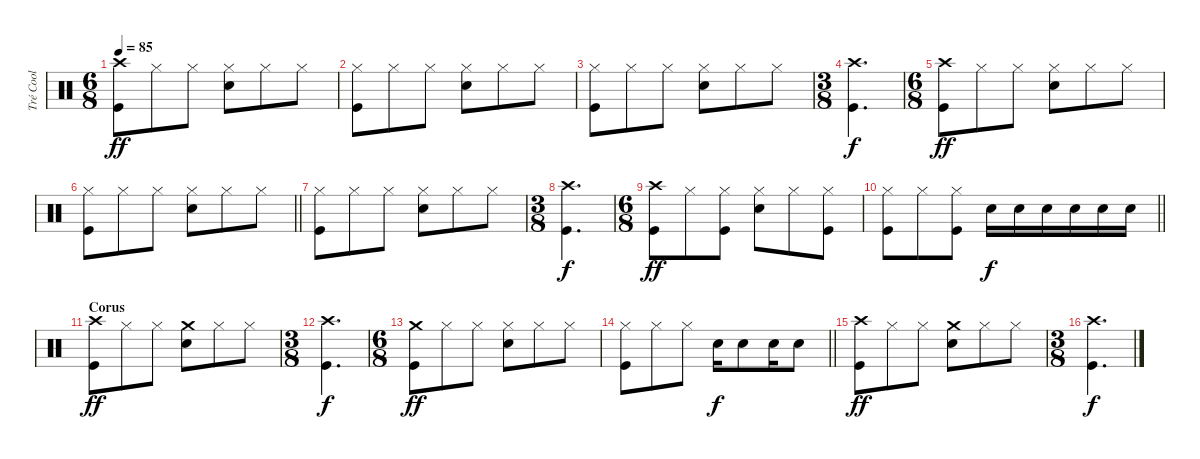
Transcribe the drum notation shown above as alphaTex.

\track ("Tré Cool" "Tré Cool") {instrument percussion}
\staff {score}
\articulation defaults
\ts (6 8)
\tempo 85
\clef neutral
\ks c
("Crash high (hit)" "Kick (hit)").8{dy ff} "Hi-Hat (closed)".8 "Hi-Hat (closed)".8 ("Hi-Hat (closed)" "Snare (hit) 2").8 "Hi-Hat (closed)".8 "Hi-Hat (closed)".8 |
("Hi-Hat (closed)" "Kick (hit)").8 "Hi-Hat (closed)".8 "Hi-Hat (closed)".8 ("Hi-Hat (closed)" "Snare (hit) 2").8 "Hi-Hat (closed)".8 "Hi-Hat (closed)".8 |
("Hi-Hat (closed)" "Kick (hit)").8 "Hi-Hat (closed)".8 "Hi-Hat (closed)".8 ("Hi-Hat (closed)" "Snare (hit) 2").8 "Hi-Hat (closed)".8 "Hi-Hat (closed)".8 |
\ts (3 8)
("Crash high (hit)" "Kick (hit)").4{d dy f} |
\ts (6 8)
("Crash high (hit)" "Kick (hit)").8{dy ff} "Hi-Hat (closed)".8 "Hi-Hat (closed)".8 ("Hi-Hat (closed)" "Snare (hit) 2").8 "Hi-Hat (closed)".8 "Hi-Hat (closed)".8 |
\barLineRight lightlight
("Hi-Hat (closed)" "Kick (hit)").8 "Hi-Hat (closed)".8 "Hi-Hat (closed)".8 ("Hi-Hat (closed)" "Snare (hit) 2").8 "Hi-Hat (closed)".8 "Hi-Hat (closed)".8 |
("Hi-Hat (closed)" "Kick (hit)").8 "Hi-Hat (closed)".8 "Hi-Hat (closed)".8 ("Hi-Hat (closed)" "Snare (hit) 2").8 "Hi-Hat (closed)".8 "Hi-Hat (closed)".8 |
\ts (3 8)
("Crash high (hit)" "Kick (hit)").4{d dy f} |
\ts (6 8)
("Crash high (hit)" "Kick (hit)").8{dy ff} "Hi-Hat (closed)".8 ("Hi-Hat (closed)" "Kick (hit)").8 ("Hi-Hat (closed)" "Snare (hit) 2").8 "Hi-Hat (closed)".8 ("Hi-Hat (closed)" "Kick (hit)").8 |
\barLineRight lightlight
("Hi-Hat (closed)" "Kick (hit)").8 "Hi-Hat (closed)".8 ("Hi-Hat (closed)" "Kick (hit)").8 "Snare (hit) 2".16{dy f} "Snare (hit) 2".16 "Snare (hit) 2".16 "Snare (hit) 2".16 "Snare (hit) 2".16 "Snare (hit) 2".16 |
\section ("" "Corus")
("Crash high (hit)" "Kick (hit)").8{dy ff} "Hi-Hat (closed)".8 "Hi-Hat (closed)".8 ("Crash medium (hit)" "Snare (hit) 2").8 "Hi-Hat (closed)".8 "Hi-Hat (closed)".8 |
\ts (3 8)
("Crash high (hit)" "Kick (hit)").4{d dy f} |
\ts (6 8)
("Crash medium (hit)" "Kick (hit)").8{dy ff} "Hi-Hat (closed)".8 "Hi-Hat (closed)".8 ("Hi-Hat (closed)" "Snare (hit) 2").8 "Hi-Hat (closed)".8 "Hi-Hat (closed)".8 |
\barLineRight lightlight
("Hi-Hat (closed)" "Kick (hit)").8 "Hi-Hat (closed)".8 "Hi-Hat (closed)".8 "Snare (hit) 2".16{dy f} "Snare (hit) 2".8 "Snare (hit) 2".16 "Snare (hit) 2".8 |
("Crash high (hit)" "Kick (hit)").8{dy ff} "Hi-Hat (closed)".8 "Hi-Hat (closed)".8 ("Crash medium (hit)" "Snare (hit) 2").8 "Hi-Hat (closed)".8 "Hi-Hat (closed)".8 |
\ts (3 8)
("Crash high (hit)" "Kick (hit)").4{d dy f}
